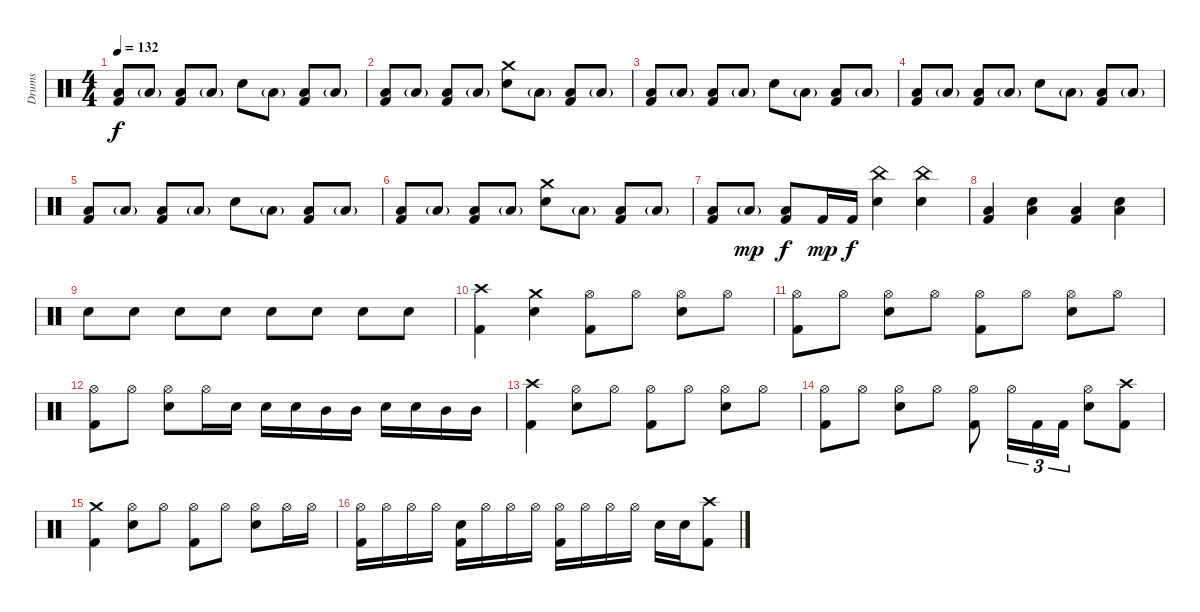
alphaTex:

\track ("Drums" "Drums") {instrument percussion}
\staff {score}
\articulation defaults
\ts (4 4)
\tempo 132
\clef neutral
\ks c
("Low Floor Tom (hit)" "Kick (hit) 2").8{dy f} "Low Floor Tom (hit)"{g}.8 ("Low Floor Tom (hit)" "Kick (hit) 2").8 "Low Floor Tom (hit)"{g}.8 "Snare (hit) 2".8 "Low Floor Tom (hit)"{g}.8 ("Low Floor Tom (hit)" "Kick (hit) 2").8 "Low Floor Tom (hit)"{g}.8 |
("Low Floor Tom (hit)" "Kick (hit) 2").8 "Low Floor Tom (hit)"{g}.8 ("Low Floor Tom (hit)" "Kick (hit) 2").8 "Low Floor Tom (hit)"{g}.8 ("Crash medium (hit)" "Snare (hit) 2").8 "Low Floor Tom (hit)"{g}.8 ("Low Floor Tom (hit)" "Kick (hit) 2").8 "Low Floor Tom (hit)"{g}.8 |
("Low Floor Tom (hit)" "Kick (hit) 2").8 "Low Floor Tom (hit)"{g}.8 ("Low Floor Tom (hit)" "Kick (hit) 2").8 "Low Floor Tom (hit)"{g}.8 "Snare (hit) 2".8 "Low Floor Tom (hit)"{g}.8 ("Low Floor Tom (hit)" "Kick (hit) 2").8 "Low Floor Tom (hit)"{g}.8 |
("Low Floor Tom (hit)" "Kick (hit) 2").8 "Low Floor Tom (hit)"{g}.8 ("Low Floor Tom (hit)" "Kick (hit) 2").8 "Low Floor Tom (hit)"{g}.8 "Snare (hit) 2".8 "Low Floor Tom (hit)"{g}.8 ("Low Floor Tom (hit)" "Kick (hit) 2").8 "Low Floor Tom (hit)"{g}.8 |
("Low Floor Tom (hit)" "Kick (hit) 2").8 "Low Floor Tom (hit)"{g}.8 ("Low Floor Tom (hit)" "Kick (hit) 2").8 "Low Floor Tom (hit)"{g}.8 "Snare (hit) 2".8 "Low Floor Tom (hit)"{g}.8 ("Low Floor Tom (hit)" "Kick (hit) 2").8 "Low Floor Tom (hit)"{g}.8 |
("Low Floor Tom (hit)" "Kick (hit) 2").8 "Low Floor Tom (hit)"{g}.8 ("Low Floor Tom (hit)" "Kick (hit) 2").8 "Low Floor Tom (hit)"{g}.8 ("Crash medium (hit)" "Snare (hit) 2").8 "Low Floor Tom (hit)"{g}.8 ("Low Floor Tom (hit)" "Kick (hit) 2").8 "Low Floor Tom (hit)"{g}.8 |
("Low Floor Tom (hit)" "Kick (hit) 2").8 "Low Floor Tom (hit)"{g}.8{dy mp} ("Low Floor Tom (hit)" "Kick (hit) 2").8{dy f} "Kick (hit) 2".16{dy mp} "Kick (hit) 2".16{dy f} ("China (hit)" "Snare (hit) 2").4 ("China (hit)" "Snare (hit) 2").4 |
("Low Floor Tom (hit)" "Kick (hit) 2").4 ("Low Floor Tom (hit)" "Snare (hit) 2").4 ("Low Floor Tom (hit)" "Kick (hit) 2").4 ("Low Floor Tom (hit)" "Snare (hit) 2").4 |
"Snare (hit) 2".8 "Snare (hit) 2".8 "Snare (hit) 2".8 "Snare (hit) 2".8 "Snare (hit) 2".8 "Snare (hit) 2".8 "Snare (hit) 2".8 "Snare (hit) 2".8 |
("Crash high (hit)" "Kick (hit) 2").4 ("Crash medium (hit)" "Snare (hit) 2").4 ("Hi-Hat (open)" "Kick (hit) 2").8 "Hi-Hat (open)".8 ("Hi-Hat (open)" "Snare (hit) 2").8 "Hi-Hat (open)".8 |
("Hi-Hat (open)" "Kick (hit) 2").8 "Hi-Hat (open)".8 ("Hi-Hat (open)" "Snare (hit) 2").8 "Hi-Hat (open)".8 ("Hi-Hat (open)" "Kick (hit) 2").8 "Hi-Hat (open)".8 ("Hi-Hat (open)" "Snare (hit) 2").8 "Hi-Hat (open)".8 |
("Hi-Hat (open)" "Kick (hit) 2").8 "Hi-Hat (open)".8 ("Hi-Hat (open)" "Snare (hit) 2").8 "Hi-Hat (open)".16 "Snare (hit) 2".16 "Snare (hit) 2".16 "Snare (hit) 2".16 "Mid Tom (hit)".16 "Mid Tom (hit)".16 "Snare (hit) 2".16 "Snare (hit) 2".16 "Mid Tom (hit)".16 "Mid Tom (hit)".16 |
("Crash high (hit)" "Kick (hit) 2").4 ("Hi-Hat (open)" "Snare (hit) 2").8 "Hi-Hat (open)".8 ("Hi-Hat (open)" "Kick (hit) 2").8 "Hi-Hat (open)".8 ("Hi-Hat (open)" "Snare (hit) 2").8 "Hi-Hat (open)".8 |
("Hi-Hat (open)" "Kick (hit) 2").8 "Hi-Hat (open)".8 ("Hi-Hat (open)" "Snare (hit) 2").8 "Hi-Hat (open)".8 ("Hi-Hat (open)" "Kick (hit) 2").8 "Hi-Hat (open)".16{tu (3 2)} "Kick (hit) 2".16{tu (3 2)} "Kick (hit) 2".16{tu (3 2)} ("Hi-Hat (open)" "Snare (hit) 2").8 ("Crash high (hit)" "Kick (hit) 2").8 |
("Crash medium (hit)" "Kick (hit) 2").4 ("Hi-Hat (open)" "Snare (hit) 2").8 "Hi-Hat (open)".8 ("Hi-Hat (open)" "Kick (hit) 2").8 "Hi-Hat (open)".8 ("Hi-Hat (open)" "Snare (hit) 2").8 "Hi-Hat (open)".16 "Hi-Hat (open)".16 |
("Hi-Hat (open)" "Kick (hit) 2").16 "Hi-Hat (open)".16 "Hi-Hat (open)".16 "Hi-Hat (open)".16 ("Snare (hit) 2" "Kick (hit) 2").16 "Hi-Hat (open)".16 "Hi-Hat (open)".16 "Hi-Hat (open)".16 ("Hi-Hat (open)" "Kick (hit) 2").16 "Hi-Hat (open)".16 "Hi-Hat (open)".16 "Hi-Hat (open)".16 "Snare (hit) 2".16 "Snare (hit) 2".16 ("Crash high (hit)" "Kick (hit) 2").8
